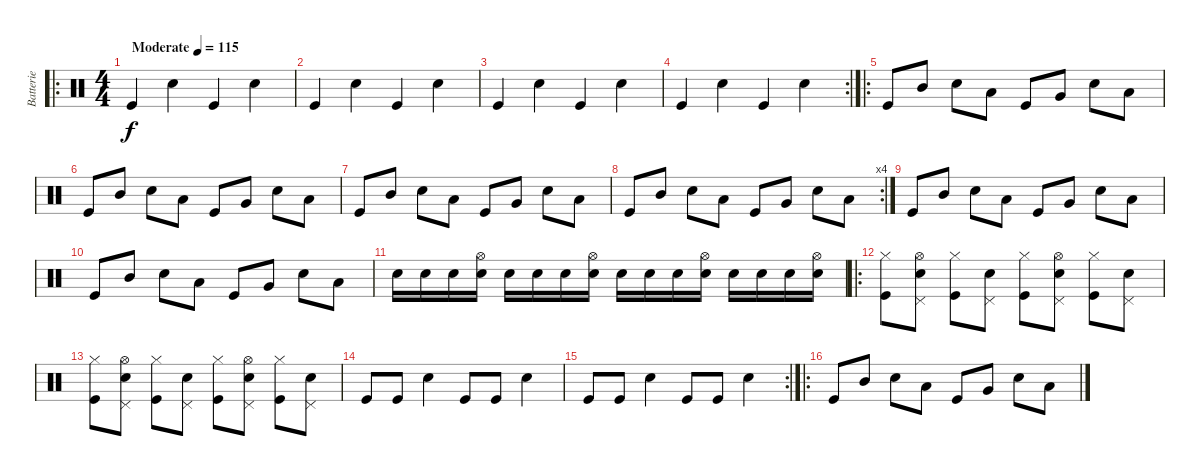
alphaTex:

\track ("Batterie" "Batterie") {instrument percussion}
\staff {score}
\articulation defaults
\ro
\ts (4 4)
\tempo (115 "Moderate")
\clef neutral
\ks c "Kick (hit)".4{dy f} "Snare (hit) 2".4 "Kick (hit)".4 "Snare (hit) 2".4
|
"Kick (hit)".4 "Snare (hit) 2".4 "Kick (hit)".4 "Snare (hit) 2".4 |
"Kick (hit)".4 "Snare (hit) 2".4 "Kick (hit)".4 "Snare (hit) 2".4 |
\rc 2 "Kick (hit)".4 "Snare (hit) 2".4 "Kick (hit)".4 "Snare (hit) 2".4
|
\ro "Kick (hit)".8 "Mid Tom (hit)".8 "Snare (hit) 2".8 "Low Tom (hit)".8 "Kick (hit)".8 "Very Low Tom (hit)".8 "Snare (hit) 2".8 "Low Floor Tom (hit)".8
|
"Kick (hit)".8 "Mid Tom (hit)".8 "Snare (hit) 2".8 "Low Tom (hit)".8 "Kick (hit)".8 "Very Low Tom (hit)".8 "Snare (hit) 2".8 "Low Floor Tom (hit)".8 |
"Kick (hit)".8 "Mid Tom (hit)".8 "Snare (hit) 2".8 "Low Tom (hit)".8 "Kick (hit)".8 "Very Low Tom (hit)".8 "Snare (hit) 2".8 "Low Floor Tom (hit)".8 |
\rc 4 "Kick (hit)".8 "Mid Tom (hit)".8 "Snare (hit) 2".8 "Low Tom (hit)".8 "Kick (hit)".8 "Very Low Tom (hit)".8 "Snare (hit) 2".8 "Low Floor Tom (hit)".8
|
"Kick (hit)".8 "Mid Tom (hit)".8 "Snare (hit) 2".8 "Low Tom (hit)".8 "Kick (hit)".8 "Very Low Tom (hit)".8 "Snare (hit) 2".8 "Low Floor Tom (hit)".8 |
"Kick (hit)".8 "Mid Tom (hit)".8 "Snare (hit) 2".8 "Low Tom (hit)".8 "Kick (hit)".8 "Very Low Tom (hit)".8 "Snare (hit) 2".8 "Low Floor Tom (hit)".8 |
"Snare (hit) 2".16 "Snare (hit) 2".16 "Snare (hit) 2".16 ("Snare (hit) 2" "Hi-Hat (open)").16 "Snare (hit) 2".16 "Snare (hit) 2".16 "Snare (hit) 2".16 ("Snare (hit) 2" "Hi-Hat (open)").16 "Snare (hit) 2".16 "Snare (hit) 2".16 "Snare (hit) 2".16 ("Snare (hit) 2" "Hi-Hat (open)").16 "Snare (hit) 2".16 "Snare (hit) 2".16 "Snare (hit) 2".16 ("Snare (hit) 2" "Hi-Hat (open)").16 |
\ro
("Hi-Hat (closed)" "Kick (hit)").8 ("Hi-Hat (open)" "Pedal Hi-Hat (hit)" "Snare (hit) 2").8 ("Hi-Hat (closed)" "Kick (hit)").8 ("Pedal Hi-Hat (hit)" "Snare (hit) 2").8 ("Hi-Hat (closed)" "Kick (hit)").8 ("Hi-Hat (open)" "Pedal Hi-Hat (hit)" "Snare (hit) 2").8 ("Hi-Hat (closed)" "Kick (hit)").8 ("Pedal Hi-Hat (hit)" "Snare (hit) 2").8 |
("Hi-Hat (closed)" "Kick (hit)").8 ("Hi-Hat (open)" "Pedal Hi-Hat (hit)" "Snare (hit) 2").8 ("Hi-Hat (closed)" "Kick (hit)").8 ("Pedal Hi-Hat (hit)" "Snare (hit) 2").8 ("Hi-Hat (closed)" "Kick (hit)").8 ("Hi-Hat (open)" "Pedal Hi-Hat (hit)" "Snare (hit) 2").8 ("Hi-Hat (closed)" "Kick (hit)").8 ("Pedal Hi-Hat (hit)" "Snare (hit) 2").8 |
"Kick (hit)".8 "Kick (hit)".8 "Snare (hit) 2".4 "Kick (hit)".8 "Kick (hit)".8 "Snare (hit) 2".4 |
\rc 2 "Kick (hit)".8 "Kick (hit)".8 "Snare (hit) 2".4 "Kick (hit)".8 "Kick (hit)".8 "Snare (hit) 2".4
|
\ro "Kick (hit)".8 "Mid Tom (hit)".8 "Snare (hit) 2".8 "Low Tom (hit)".8 "Kick (hit)".8 "Very Low Tom (hit)".8 "Snare (hit) 2".8 "Low Floor Tom (hit)".8
